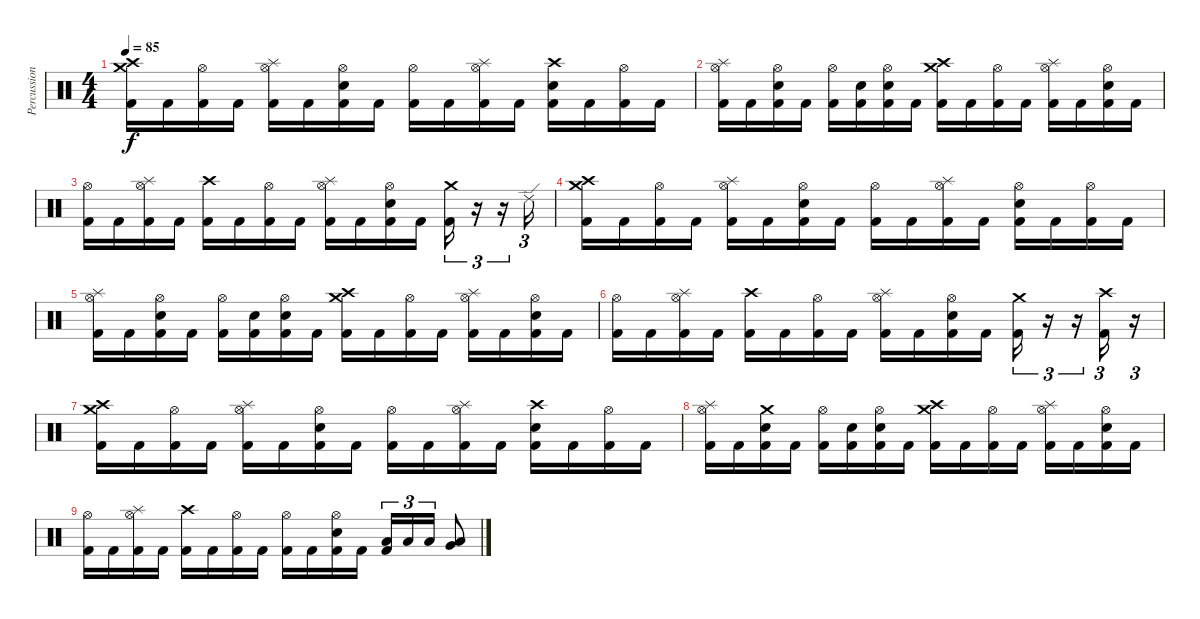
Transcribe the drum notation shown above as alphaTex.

\track ("Percussion" "Percussion") {instrument percussion}
\staff {score}
\articulation defaults
\ts (4 4)
\tempo 85
\clef neutral
\ks c
("Crash medium (hit)" "Crash high (hit)" "Kick (hit) 2").16{dy f} "Kick (hit) 2".16 ("Hi-Hat (open)" "Kick (hit) 2").16 "Kick (hit) 2".16 ("Hi-Hat (open)" "Splash (hit)" "Kick (hit) 2").16 "Kick (hit) 2".16 ("Hi-Hat (open)" "Snare (hit) 2" "Kick (hit) 2").16 "Kick (hit) 2".16 ("Hi-Hat (open)" "Kick (hit) 2").16 "Kick (hit) 2".16 ("Hi-Hat (open)" "Splash (hit)" "Kick (hit) 2").16 "Kick (hit) 2".16 ("Crash high (hit)" "Snare (hit) 2" "Kick (hit) 2").16 "Kick (hit) 2".16 ("Hi-Hat (open)" "Kick (hit) 2").16 "Kick (hit) 2".16 |
("Hi-Hat (open)" "Splash (hit)" "Kick (hit) 2").16 "Kick (hit) 2".16 ("Hi-Hat (open)" "Snare (hit) 2" "Kick (hit) 2").16 "Kick (hit) 2".16 ("Hi-Hat (open)" "Kick (hit) 2").16 ("Snare (hit) 2" "Kick (hit) 2").16 ("Hi-Hat (open)" "Snare (hit) 2" "Kick (hit) 2").16 "Kick (hit) 2".16 ("Crash medium (hit)" "Crash high (hit)" "Kick (hit) 2").16 "Kick (hit) 2".16 ("Hi-Hat (open)" "Kick (hit) 2").16 "Kick (hit) 2".16 ("Hi-Hat (open)" "Splash (hit)" "Kick (hit) 2").16 "Kick (hit) 2".16 ("Hi-Hat (open)" "Snare (hit) 2" "Kick (hit) 2").16 "Kick (hit) 2".16 |
("Hi-Hat (open)" "Kick (hit) 2").16 "Kick (hit) 2".16 ("Hi-Hat (open)" "Splash (hit)" "Kick (hit) 2").16 "Kick (hit) 2".16 ("Crash high (hit)" "Kick (hit) 2").16 "Kick (hit) 2".16 ("Hi-Hat (open)" "Kick (hit) 2").16 "Kick (hit) 2".16 ("Hi-Hat (open)" "Splash (hit)" "Kick (hit) 2").16 "Kick (hit) 2".16 ("Hi-Hat (open)" "Snare (hit) 2" "Kick (hit) 2").16 "Kick (hit) 2".16 ("Crash medium (hit)" "Kick (hit) 2").16{tu (3 2)} r.16{tu (3 2)} r.16{tu (3 2)} "Ride (edge) 2".16{tu (3 2)} |
("Crash medium (hit)" "Crash high (hit)" "Kick (hit) 2").16 "Kick (hit) 2".16 ("Hi-Hat (open)" "Kick (hit) 2").16 "Kick (hit) 2".16 ("Hi-Hat (open)" "Splash (hit)" "Kick (hit) 2").16 "Kick (hit) 2".16 ("Hi-Hat (open)" "Snare (hit) 2" "Kick (hit) 2").16 "Kick (hit) 2".16 ("Hi-Hat (open)" "Kick (hit) 2").16 "Kick (hit) 2".16 ("Hi-Hat (open)" "Splash (hit)" "Kick (hit) 2").16 "Kick (hit) 2".16 ("Hi-Hat (open)" "Snare (hit) 2" "Kick (hit) 2").16 "Kick (hit) 2".16 ("Hi-Hat (open)" "Kick (hit) 2").16 "Kick (hit) 2".16 |
("Hi-Hat (open)" "Splash (hit)" "Kick (hit) 2").16 "Kick (hit) 2".16 ("Hi-Hat (open)" "Snare (hit) 2" "Kick (hit) 2").16 "Kick (hit) 2".16 ("Hi-Hat (open)" "Kick (hit) 2").16 ("Snare (hit) 2" "Kick (hit) 2").16 ("Hi-Hat (open)" "Snare (hit) 2" "Kick (hit) 2").16 "Kick (hit) 2".16 ("Crash medium (hit)" "Crash high (hit)" "Kick (hit) 2").16 "Kick (hit) 2".16 ("Hi-Hat (open)" "Kick (hit) 2").16 "Kick (hit) 2".16 ("Hi-Hat (open)" "Splash (hit)" "Kick (hit) 2").16 "Kick (hit) 2".16 ("Hi-Hat (open)" "Snare (hit) 2" "Kick (hit) 2").16 "Kick (hit) 2".16 |
("Hi-Hat (open)" "Kick (hit) 2").16 "Kick (hit) 2".16 ("Hi-Hat (open)" "Splash (hit)" "Kick (hit) 2").16 "Kick (hit) 2".16 ("Crash high (hit)" "Kick (hit) 2").16 "Kick (hit) 2".16 ("Hi-Hat (open)" "Kick (hit) 2").16 "Kick (hit) 2".16 ("Hi-Hat (open)" "Splash (hit)" "Kick (hit) 2").16 "Kick (hit) 2".16 ("Hi-Hat (open)" "Snare (hit) 2" "Kick (hit) 2").16 "Kick (hit) 2".16 ("Crash medium (hit)" "Kick (hit) 2").16{tu (3 2)} r.16{tu (3 2)} r.16{tu (3 2)} ("Crash high (hit)" "Kick (hit) 2").16{tu (3 2)} r.16{tu (3 2)} |
("Crash medium (hit)" "Crash high (hit)" "Kick (hit) 2").16 "Kick (hit) 2".16 ("Hi-Hat (open)" "Kick (hit) 2").16 "Kick (hit) 2".16 ("Hi-Hat (open)" "Splash (hit)" "Kick (hit) 2").16 "Kick (hit) 2".16 ("Hi-Hat (open)" "Snare (hit) 2" "Kick (hit) 2").16 "Kick (hit) 2".16 ("Hi-Hat (open)" "Kick (hit) 2").16 "Kick (hit) 2".16 ("Hi-Hat (open)" "Splash (hit)" "Kick (hit) 2").16 "Kick (hit) 2".16 ("Crash high (hit)" "Snare (hit) 2" "Kick (hit) 2").16 "Kick (hit) 2".16 ("Hi-Hat (open)" "Kick (hit) 2").16 "Kick (hit) 2".16 |
("Hi-Hat (open)" "Splash (hit)" "Kick (hit) 2").16 "Kick (hit) 2".16 ("Crash medium (hit)" "Snare (hit) 2" "Kick (hit) 2").16 "Kick (hit) 2".16 ("Hi-Hat (open)" "Kick (hit) 2").16 ("Snare (hit) 2" "Kick (hit) 2").16 ("Hi-Hat (open)" "Snare (hit) 2" "Kick (hit) 2").16 "Kick (hit) 2".16 ("Crash medium (hit)" "Crash high (hit)" "Kick (hit) 2").16 "Kick (hit) 2".16 ("Hi-Hat (open)" "Kick (hit) 2").16 "Kick (hit) 2".16 ("Hi-Hat (open)" "Splash (hit)" "Kick (hit) 2").16 "Kick (hit) 2".16 ("Hi-Hat (open)" "Snare (hit) 2" "Kick (hit) 2").16 "Kick (hit) 2".16 |
("Hi-Hat (open)" "Kick (hit) 2").16 "Kick (hit) 2".16 ("Hi-Hat (open)" "Splash (hit)" "Kick (hit) 2").16 "Kick (hit) 2".16 ("Crash high (hit)" "Kick (hit) 2").16 "Kick (hit) 2".16 ("Hi-Hat (open)" "Kick (hit) 2").16 "Kick (hit) 2".16 ("Hi-Hat (open)" "Kick (hit) 2").16 "Kick (hit) 2".16 ("Hi-Hat (open)" "Snare (hit) 2" "Kick (hit) 2").16 "Kick (hit) 2".16 ("Low Tom (hit)" "Kick (hit) 2").16{tu (3 2)} "Low Tom (hit)".16{tu (3 2)} "Low Tom (hit)".16{tu (3 2)} ("Low Floor Tom (hit)" "Very Low Tom (hit)").8
